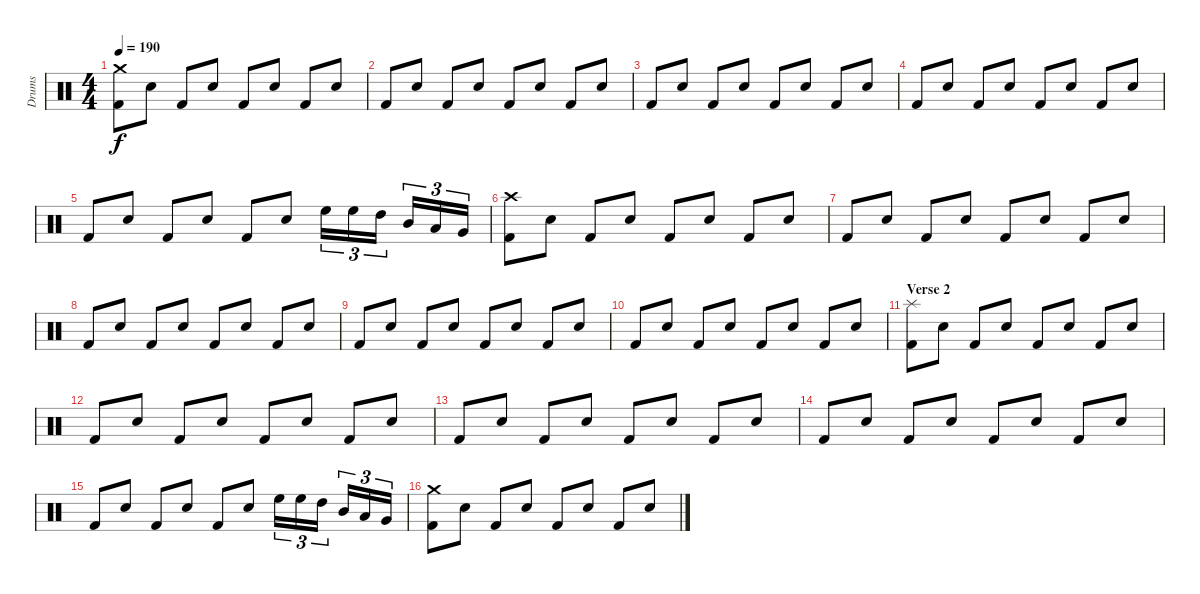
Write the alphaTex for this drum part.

\track ("Drums" "Drums") {instrument percussion}
\staff {score}
\articulation defaults
\ts (4 4)
\tempo 190
\clef neutral
\ks c
("Crash medium (hit)" "Kick (hit) 2").8{dy f} "Snare (hit) 2".8 "Kick (hit) 2".8 "Snare (hit) 2".8 "Kick (hit) 2".8 "Snare (hit) 2".8 "Kick (hit) 2".8 "Snare (hit) 2".8 |
"Kick (hit) 2".8 "Snare (hit) 2".8 "Kick (hit) 2".8 "Snare (hit) 2".8 "Kick (hit) 2".8 "Snare (hit) 2".8 "Kick (hit) 2".8 "Snare (hit) 2".8 |
"Kick (hit) 2".8 "Snare (hit) 2".8 "Kick (hit) 2".8 "Snare (hit) 2".8 "Kick (hit) 2".8 "Snare (hit) 2".8 "Kick (hit) 2".8 "Snare (hit) 2".8 |
"Kick (hit) 2".8 "Snare (hit) 2".8 "Kick (hit) 2".8 "Snare (hit) 2".8 "Kick (hit) 2".8 "Snare (hit) 2".8 "Kick (hit) 2".8 "Snare (hit) 2".8 |
"Kick (hit) 2".8 "Snare (hit) 2".8 "Kick (hit) 2".8 "Snare (hit) 2".8 "Kick (hit) 2".8 "Snare (hit) 2".8 "High Floor Tom (hit)".16{tu (3 2)} "High Floor Tom (hit)".16{tu (3 2)} "High Tom (hit)".16{tu (3 2)} "Mid Tom (hit)".16{tu (3 2)} "Low Tom (hit)".16{tu (3 2)} "Very Low Tom (hit)".16{tu (3 2)} |
("Crash high (hit)" "Kick (hit) 2").8 "Snare (hit) 2".8 "Kick (hit) 2".8 "Snare (hit) 2".8 "Kick (hit) 2".8 "Snare (hit) 2".8 "Kick (hit) 2".8 "Snare (hit) 2".8 |
"Kick (hit) 2".8 "Snare (hit) 2".8 "Kick (hit) 2".8 "Snare (hit) 2".8 "Kick (hit) 2".8 "Snare (hit) 2".8 "Kick (hit) 2".8 "Snare (hit) 2".8 |
"Kick (hit) 2".8 "Snare (hit) 2".8 "Kick (hit) 2".8 "Snare (hit) 2".8 "Kick (hit) 2".8 "Snare (hit) 2".8 "Kick (hit) 2".8 "Snare (hit) 2".8 |
"Kick (hit) 2".8 "Snare (hit) 2".8 "Kick (hit) 2".8 "Snare (hit) 2".8 "Kick (hit) 2".8 "Snare (hit) 2".8 "Kick (hit) 2".8 "Snare (hit) 2".8 |
"Kick (hit) 2".8 "Snare (hit) 2".8 "Kick (hit) 2".8 "Snare (hit) 2".8 "Kick (hit) 2".8 "Snare (hit) 2".8 "Kick (hit) 2".8 "Snare (hit) 2".8 |
\section ("" "Verse 2")
("Splash (hit)" "Kick (hit) 2").8 "Snare (hit) 2".8 "Kick (hit) 2".8 "Snare (hit) 2".8 "Kick (hit) 2".8 "Snare (hit) 2".8 "Kick (hit) 2".8 "Snare (hit) 2".8 |
"Kick (hit) 2".8 "Snare (hit) 2".8 "Kick (hit) 2".8 "Snare (hit) 2".8 "Kick (hit) 2".8 "Snare (hit) 2".8 "Kick (hit) 2".8 "Snare (hit) 2".8 |
"Kick (hit) 2".8 "Snare (hit) 2".8 "Kick (hit) 2".8 "Snare (hit) 2".8 "Kick (hit) 2".8 "Snare (hit) 2".8 "Kick (hit) 2".8 "Snare (hit) 2".8 |
"Kick (hit) 2".8 "Snare (hit) 2".8 "Kick (hit) 2".8 "Snare (hit) 2".8 "Kick (hit) 2".8 "Snare (hit) 2".8 "Kick (hit) 2".8 "Snare (hit) 2".8 |
"Kick (hit) 2".8 "Snare (hit) 2".8 "Kick (hit) 2".8 "Snare (hit) 2".8 "Kick (hit) 2".8 "Snare (hit) 2".8 "High Floor Tom (hit)".16{tu (3 2)} "High Floor Tom (hit)".16{tu (3 2)} "High Tom (hit)".16{tu (3 2)} "Mid Tom (hit)".16{tu (3 2)} "Low Tom (hit)".16{tu (3 2)} "Very Low Tom (hit)".16{tu (3 2)} |
("Crash medium (hit)" "Kick (hit) 2").8 "Snare (hit) 2".8 "Kick (hit) 2".8 "Snare (hit) 2".8 "Kick (hit) 2".8 "Snare (hit) 2".8 "Kick (hit) 2".8 "Snare (hit) 2".8
